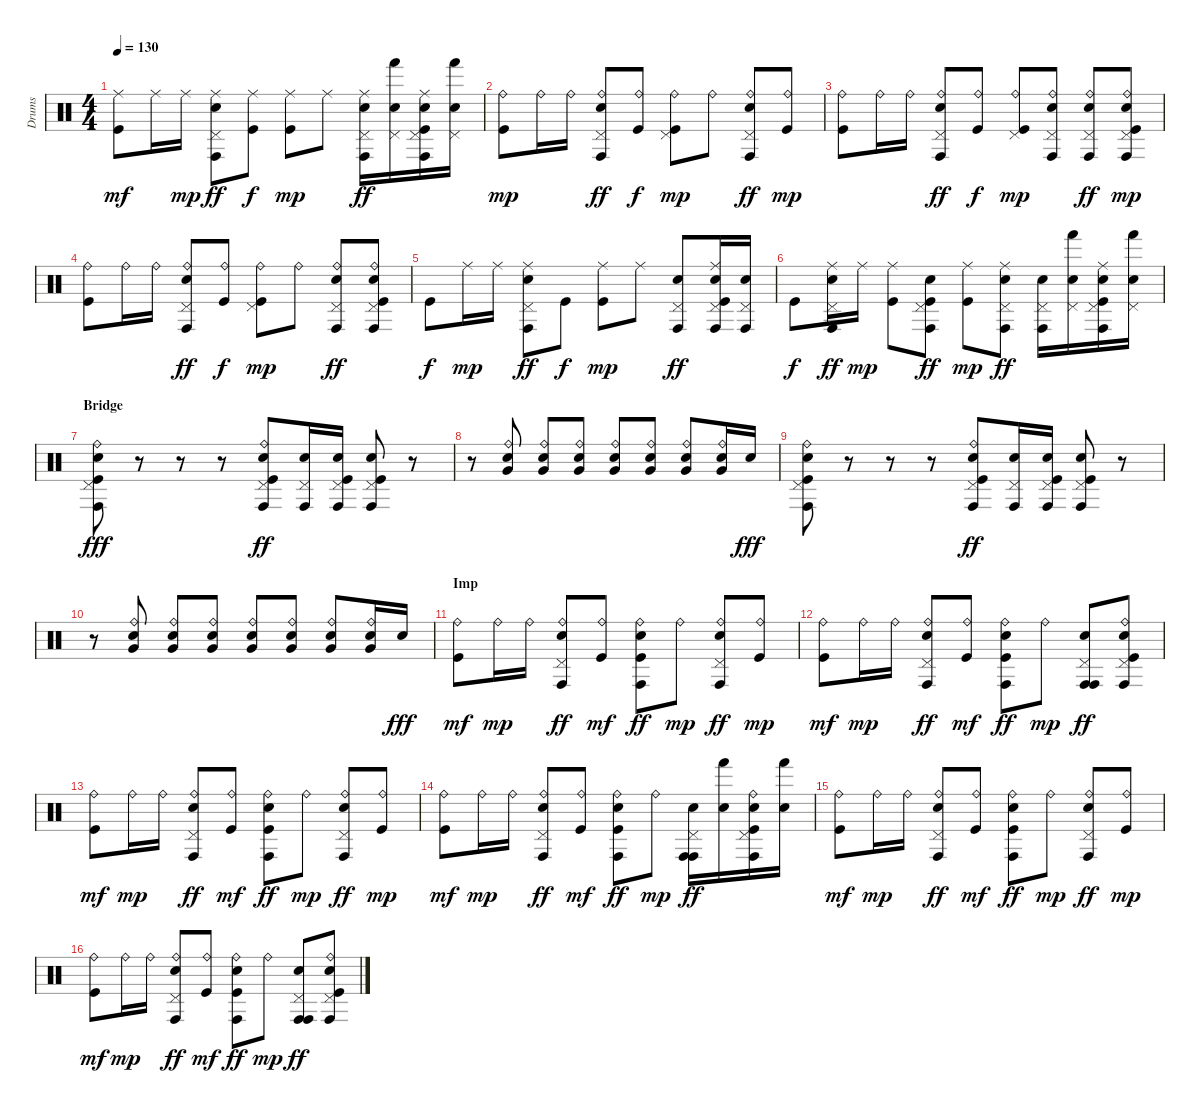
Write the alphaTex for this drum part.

\track ("Drums" "Drums") {instrument percussion}
\staff {score}
\articulation defaults
\ts (4 4)
\tempo 130
\clef neutral
\ks c
("Ride (middle)" "Kick (hit)").8{dy mf} "Ride (middle)".16 "Ride (middle)".16{dy mp} ("Ride (middle)" "Pedal Hi-Hat (hit)" "Conga high (hit)" "Electric Snare (hit)").8{dy ff} ("Ride (middle)" "Kick (hit)").8{dy f} ("Ride (middle)" "Kick (hit)").8{dy mp} "Ride (middle)".8 ("Ride (middle)" "Pedal Hi-Hat (hit)" "Conga high (hit)" "Electric Snare (hit)").16{dy ff} ("Pedal Hi-Hat (hit)" "Hand (hit)" "Electric Snare (hit)").16 ("Ride (middle)" "Pedal Hi-Hat (hit)" "Conga high (hit)" "Electric Snare (hit)" "Kick (hit)").16 ("Pedal Hi-Hat (hit)" "Hand (hit)" "Electric Snare (hit)").16 |
("Ride (bell)" "Kick (hit)").8{dy mp} "Ride (bell)".16 "Ride (bell)".16 ("Ride (bell)" "Pedal Hi-Hat (hit)" "Conga high (hit)" "Electric Snare (hit)").8{dy ff} ("Ride (bell)" "Kick (hit)").8{dy f} ("Ride (bell)" "Pedal Hi-Hat (hit)" "Kick (hit)").8{dy mp} "Ride (bell)".8 ("Ride (bell)" "Pedal Hi-Hat (hit)" "Conga high (hit)" "Electric Snare (hit)").8{dy ff} ("Ride (bell)" "Kick (hit)").8{dy mp} |
("Ride (bell)" "Kick (hit)").8 "Ride (bell)".16 "Ride (bell)".16 ("Ride (bell)" "Pedal Hi-Hat (hit)" "Conga high (hit)" "Electric Snare (hit)").8{dy ff} ("Ride (bell)" "Kick (hit)").8{dy f} ("Ride (bell)" "Pedal Hi-Hat (hit)" "Kick (hit)").8{dy mp} ("Ride (bell)" "Pedal Hi-Hat (hit)" "Conga high (hit)" "Electric Snare (hit)").8 ("Ride (bell)" "Pedal Hi-Hat (hit)" "Conga high (hit)" "Electric Snare (hit)").8{dy ff} ("Ride (bell)" "Pedal Hi-Hat (hit)" "Conga high (hit)" "Electric Snare (hit)" "Kick (hit)").8{dy mp} |
("Ride (bell)" "Kick (hit)").8 "Ride (bell)".16 "Ride (bell)".16 ("Ride (bell)" "Pedal Hi-Hat (hit)" "Conga high (hit)" "Electric Snare (hit)").8{dy ff} ("Ride (bell)" "Kick (hit)").8{dy f} ("Ride (bell)" "Pedal Hi-Hat (hit)" "Kick (hit)").8{dy mp} "Ride (bell)".8 ("Ride (bell)" "Pedal Hi-Hat (hit)" "Conga high (hit)" "Electric Snare (hit)").8{dy ff} ("Ride (bell)" "Pedal Hi-Hat (hit)" "Conga high (hit)" "Electric Snare (hit)" "Kick (hit)").8 |
"Kick (hit)".8{dy f} "Ride (middle)".16{dy mp} "Ride (middle)".16 ("Ride (middle)" "Pedal Hi-Hat (hit)" "Conga high (hit)" "Electric Snare (hit)").8{dy ff} "Kick (hit)".8{dy f} ("Ride (middle)" "Kick (hit)").8{dy mp} "Ride (middle)".8 ("Pedal Hi-Hat (hit)" "Conga high (hit)" "Electric Snare (hit)").8{dy ff} ("Ride (middle)" "Pedal Hi-Hat (hit)" "Conga high (hit)" "Electric Snare (hit)" "Kick (hit)").16 ("Pedal Hi-Hat (hit)" "Conga high (hit)" "Electric Snare (hit)").16 |
"Kick (hit)".8{dy f} ("Ride (middle)" "Pedal Hi-Hat (hit)" "Conga high (hit)" "Electric Snare (hit)").16{dy ff} "Ride (middle)".16{dy mp} ("Ride (middle)" "Kick (hit)").8 ("Pedal Hi-Hat (hit)" "Conga high (hit)" "Electric Snare (hit)" "Kick (hit)").8{dy ff} ("Ride (middle)" "Kick (hit)").8{dy mp} ("Ride (middle)" "Pedal Hi-Hat (hit)" "Conga high (hit)" "Electric Snare (hit)").8{dy ff} ("Pedal Hi-Hat (hit)" "Conga high (hit)" "Electric Snare (hit)").16 ("Pedal Hi-Hat (hit)" "Hand (hit)" "Electric Snare (hit)").16 ("Ride (middle)" "Pedal Hi-Hat (hit)" "Conga high (hit)" "Electric Snare (hit)" "Kick (hit)").16 ("Pedal Hi-Hat (hit)" "Hand (hit)" "Electric Snare (hit)").16 |
\section ("" "Bridge")
("Ride (bell)" "Pedal Hi-Hat (hit)" "Conga high (hit)" "Electric Snare (hit)" "Kick (hit)").8{dy fff} r.8 r.8 r.8 ("Ride (bell)" "Pedal Hi-Hat (hit)" "Conga high (hit)" "Electric Snare (hit)" "Kick (hit)").8{dy ff} ("Pedal Hi-Hat (hit)" "Conga high (hit)" "Electric Snare (hit)").16 ("Pedal Hi-Hat (hit)" "Conga high (hit)" "Electric Snare (hit)" "Kick (hit)").16 ("Pedal Hi-Hat (hit)" "Conga high (hit)" "Electric Snare (hit)" "Kick (hit)").8 r.8 |
r.8 ("Ride (bell)" "Electric Snare (hit)" "Very Low Tom (hit)").8 ("Ride (bell)" "Electric Snare (hit)" "Very Low Tom (hit)").8 ("Ride (bell)" "Electric Snare (hit)" "Very Low Tom (hit)").8 ("Ride (bell)" "Electric Snare (hit)" "Very Low Tom (hit)").8 ("Ride (bell)" "Electric Snare (hit)" "Very Low Tom (hit)").8 ("Ride (bell)" "Electric Snare (hit)" "Very Low Tom (hit)").8 ("Ride (bell)" "Electric Snare (hit)" "Very Low Tom (hit)").16 "Electric Snare (hit)".16{dy fff} |
("Ride (bell)" "Pedal Hi-Hat (hit)" "Conga high (hit)" "Electric Snare (hit)" "Kick (hit)").8 r.8 r.8 r.8 ("Ride (bell)" "Pedal Hi-Hat (hit)" "Conga high (hit)" "Electric Snare (hit)" "Kick (hit)").8{dy ff} ("Pedal Hi-Hat (hit)" "Conga high (hit)" "Electric Snare (hit)").16 ("Pedal Hi-Hat (hit)" "Conga high (hit)" "Electric Snare (hit)" "Kick (hit)").16 ("Pedal Hi-Hat (hit)" "Conga high (hit)" "Electric Snare (hit)" "Kick (hit)").8 r.8 |
r.8 ("Ride (bell)" "Electric Snare (hit)" "Very Low Tom (hit)").8 ("Ride (bell)" "Electric Snare (hit)" "Very Low Tom (hit)").8 ("Ride (bell)" "Electric Snare (hit)" "Very Low Tom (hit)").8 ("Ride (bell)" "Electric Snare (hit)" "Very Low Tom (hit)").8 ("Ride (bell)" "Electric Snare (hit)" "Very Low Tom (hit)").8 ("Ride (bell)" "Electric Snare (hit)" "Very Low Tom (hit)").8 ("Ride (bell)" "Electric Snare (hit)" "Very Low Tom (hit)").16 "Electric Snare (hit)".16{dy fff} |
\section ("" "Imp")
("Ride (bell)" "Kick (hit)").8{dy mf} "Ride (bell)".16{dy mp} "Ride (bell)".16 ("Ride (bell)" "Pedal Hi-Hat (hit)" "Conga high (hit)" "Electric Snare (hit)").8{dy ff} ("Ride (bell)" "Kick (hit)").8{dy mf} ("Ride (bell)" "Conga high (hit)" "Electric Snare (hit)" "Kick (hit)").8{dy ff} "Ride (bell)".8{dy mp} ("Ride (bell)" "Pedal Hi-Hat (hit)" "Conga high (hit)" "Electric Snare (hit)").8{dy ff} ("Ride (bell)" "Kick (hit)").8{dy mp} |
("Ride (bell)" "Kick (hit)").8{dy mf} "Ride (bell)".16{dy mp} "Ride (bell)".16 ("Ride (bell)" "Pedal Hi-Hat (hit)" "Conga high (hit)" "Electric Snare (hit)").8{dy ff} ("Ride (bell)" "Kick (hit)").8{dy mf} ("Ride (bell)" "Conga high (hit)" "Electric Snare (hit)" "Kick (hit)").8{dy ff} "Ride (bell)".8{dy mp} ("Conga high (hit)" "Pedal Hi-Hat (hit)" "Conga high (hit)" "Electric Snare (hit)").8{dy ff} ("Ride (bell)" "Pedal Hi-Hat (hit)" "Conga high (hit)" "Electric Snare (hit)" "Kick (hit)").8 |
("Ride (bell)" "Kick (hit)").8{dy mf} "Ride (bell)".16{dy mp} "Ride (bell)".16 ("Ride (bell)" "Pedal Hi-Hat (hit)" "Conga high (hit)" "Electric Snare (hit)").8{dy ff} ("Ride (bell)" "Kick (hit)").8{dy mf} ("Ride (bell)" "Conga high (hit)" "Electric Snare (hit)" "Kick (hit)").8{dy ff} "Ride (bell)".8{dy mp} ("Ride (bell)" "Pedal Hi-Hat (hit)" "Conga high (hit)" "Electric Snare (hit)").8{dy ff} ("Ride (bell)" "Kick (hit)").8{dy mp} |
("Ride (bell)" "Kick (hit)").8{dy mf} "Ride (bell)".16{dy mp} "Ride (bell)".16 ("Ride (bell)" "Pedal Hi-Hat (hit)" "Conga high (hit)" "Electric Snare (hit)").8{dy ff} ("Ride (bell)" "Kick (hit)").8{dy mf} ("Ride (bell)" "Conga high (hit)" "Electric Snare (hit)" "Kick (hit)").8{dy ff} "Ride (bell)".8{dy mp} ("Conga high (hit)" "Pedal Hi-Hat (hit)" "Conga high (hit)" "Electric Snare (hit)").16{dy ff} ("Hand (hit)" "Electric Snare (hit)").16 ("Ride (bell)" "Pedal Hi-Hat (hit)" "Conga high (hit)" "Electric Snare (hit)" "Kick (hit)").16 ("Hand (hit)" "Electric Snare (hit)").16 |
("Ride (bell)" "Kick (hit)").8{dy mf} "Ride (bell)".16{dy mp} "Ride (bell)".16 ("Ride (bell)" "Pedal Hi-Hat (hit)" "Conga high (hit)" "Electric Snare (hit)").8{dy ff} ("Ride (bell)" "Kick (hit)").8{dy mf} ("Ride (bell)" "Conga high (hit)" "Electric Snare (hit)" "Kick (hit)").8{dy ff} "Ride (bell)".8{dy mp} ("Ride (bell)" "Pedal Hi-Hat (hit)" "Conga high (hit)" "Electric Snare (hit)").8{dy ff} ("Ride (bell)" "Kick (hit)").8{dy mp} |
("Ride (bell)" "Kick (hit)").8{dy mf} "Ride (bell)".16{dy mp} "Ride (bell)".16 ("Ride (bell)" "Pedal Hi-Hat (hit)" "Conga high (hit)" "Electric Snare (hit)").8{dy ff} ("Ride (bell)" "Kick (hit)").8{dy mf} ("Ride (bell)" "Conga high (hit)" "Electric Snare (hit)" "Kick (hit)").8{dy ff} "Ride (bell)".8{dy mp} ("Conga high (hit)" "Pedal Hi-Hat (hit)" "Conga high (hit)" "Electric Snare (hit)").8{dy ff} ("Ride (bell)" "Pedal Hi-Hat (hit)" "Conga high (hit)" "Electric Snare (hit)" "Kick (hit)").8
